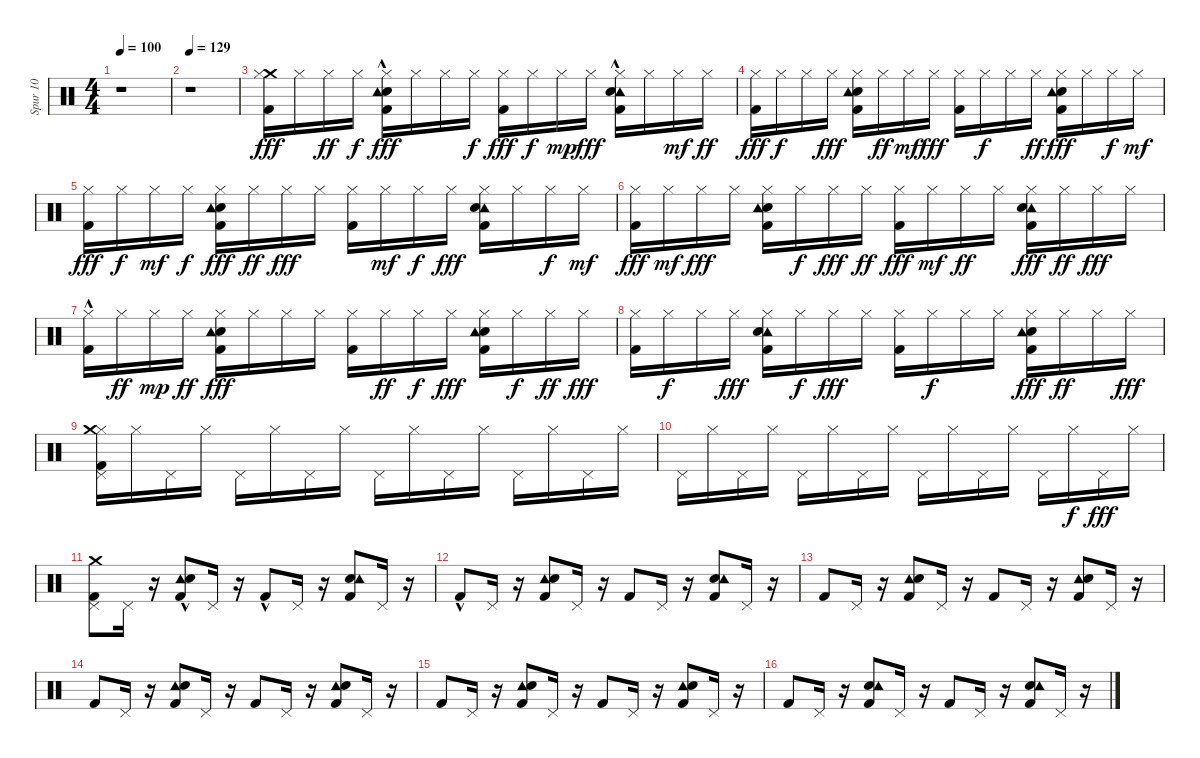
\track ("Spur 10" "Spur 10") {instrument percussion}
\staff {score}
\articulation defaults
\ts (4 4)
\tempo 100
\clef neutral
\ks c
r.1{dy fff} |
\tempo 129
r.1 |
("Crash medium (hit)" "Hi-Hat (closed)" "Kick (hit) 2").16 "Hi-Hat (closed)".16 "Hi-Hat (closed)".16{dy ff} "Hi-Hat (closed)".16{dy f} ("Kick (hit) 2"{hac} "Hi-Hat (closed)" "Electric Snare (hit)" "Tambourine (hit)").16{dy fff} "Hi-Hat (closed)".16 "Hi-Hat (closed)".16 "Hi-Hat (closed)".16{dy f} ("Kick (hit) 2" "Hi-Hat (closed)").16{dy fff} "Hi-Hat (closed)".16{dy f} "Hi-Hat (closed)".16{dy mp} "Hi-Hat (closed)".16{dy fff} ("Kick (hit) 2" "Hi-Hat (closed)" "Tambourine (hit)" "Electric Snare (hit)"{hac}).16 "Hi-Hat (closed)".16 "Hi-Hat (closed)".16{dy mf} "Hi-Hat (closed)".16{dy ff} |
("Hi-Hat (closed)" "Kick (hit) 2").16{dy fff} "Hi-Hat (closed)".16{dy f} "Hi-Hat (closed)".16 "Hi-Hat (closed)".16{dy fff} ("Electric Snare (hit)" "Hi-Hat (closed)" "Kick (hit) 2" "Tambourine (hit)").16 "Hi-Hat (closed)".16{dy ff} "Hi-Hat (closed)".16{dy mf} "Hi-Hat (closed)".16{dy fff} ("Kick (hit) 2" "Hi-Hat (closed)").16 "Hi-Hat (closed)".16{dy f} "Hi-Hat (closed)".16 "Hi-Hat (closed)".16{dy ff} ("Hi-Hat (closed)" "Kick (hit) 2" "Electric Snare (hit)" "Tambourine (hit)").16{dy fff} "Hi-Hat (closed)".16 "Hi-Hat (closed)".16{dy f} "Hi-Hat (closed)".16{dy mf} |
("Hi-Hat (closed)" "Kick (hit) 2").16{dy fff} "Hi-Hat (closed)".16{dy f} "Hi-Hat (closed)".16{dy mf} "Hi-Hat (closed)".16{dy f} ("Electric Snare (hit)" "Hi-Hat (closed)" "Tambourine (hit)" "Kick (hit) 2").16{dy fff} "Hi-Hat (closed)".16{dy ff} "Hi-Hat (closed)".16{dy fff} "Hi-Hat (closed)".16 ("Hi-Hat (closed)" "Kick (hit) 2").16 "Hi-Hat (closed)".16{dy mf} "Hi-Hat (closed)".16{dy f} "Hi-Hat (closed)".16{dy fff} ("Kick (hit) 2" "Hi-Hat (closed)" "Tambourine (hit)" "Electric Snare (hit)").16 "Hi-Hat (closed)".16 "Hi-Hat (closed)".16{dy f} "Hi-Hat (closed)".16{dy mf} |
("Kick (hit) 2" "Hi-Hat (closed)").16{dy fff} "Hi-Hat (closed)".16{dy mf} "Hi-Hat (closed)".16{dy fff} "Hi-Hat (closed)".16 ("Electric Snare (hit)" "Hi-Hat (closed)" "Tambourine (hit)" "Kick (hit) 2").16 "Hi-Hat (closed)".16{dy f} "Hi-Hat (closed)".16{dy fff} "Hi-Hat (closed)".16{dy ff} ("Hi-Hat (closed)" "Kick (hit) 2").16{dy fff} "Hi-Hat (closed)".16{dy mf} "Hi-Hat (closed)".16{dy ff} "Hi-Hat (closed)".16 ("Tambourine (hit)" "Electric Snare (hit)" "Kick (hit) 2" "Hi-Hat (closed)").16{dy fff} "Hi-Hat (closed)".16{dy ff} "Hi-Hat (closed)".16{dy fff} "Hi-Hat (closed)".16 |
("Kick (hit) 2"{hac} "Hi-Hat (closed)").16 "Hi-Hat (closed)".16{dy ff} "Hi-Hat (closed)".16{dy mp} "Hi-Hat (closed)".16{dy ff} ("Electric Snare (hit)" "Kick (hit) 2" "Tambourine (hit)" "Hi-Hat (closed)").16{dy fff} "Hi-Hat (closed)".16 "Hi-Hat (closed)".16 "Hi-Hat (closed)".16 ("Hi-Hat (closed)" "Kick (hit) 2").16 "Hi-Hat (closed)".16{dy ff} "Hi-Hat (closed)".16{dy f} "Hi-Hat (closed)".16{dy fff} ("Hi-Hat (closed)" "Electric Snare (hit)" "Kick (hit) 2" "Tambourine (hit)").16 "Hi-Hat (closed)".16{dy f} "Hi-Hat (closed)".16{dy ff} "Hi-Hat (closed)".16{dy fff} |
("Hi-Hat (closed)" "Kick (hit) 2").16 "Hi-Hat (closed)".16{dy f} "Hi-Hat (closed)".16 "Hi-Hat (closed)".16{dy fff} ("Kick (hit) 2" "Hi-Hat (closed)" "Tambourine (hit)" "Electric Snare (hit)").16 "Hi-Hat (closed)".16{dy f} "Hi-Hat (closed)".16{dy fff} "Hi-Hat (closed)".16 ("Hi-Hat (closed)" "Kick (hit) 2").16 "Hi-Hat (closed)".16{dy f} "Hi-Hat (closed)".16 "Hi-Hat (closed)".16 ("Kick (hit) 2" "Electric Snare (hit)" "Tambourine (hit)" "Hi-Hat (closed)").16{dy fff} "Hi-Hat (closed)".16{dy ff} "Hi-Hat (closed)".16 "Hi-Hat (closed)".16{dy fff} |
("Hi-Hat (closed)" "Pedal Hi-Hat (hit)" "Kick (hit) 2" "Crash medium (hit)").16 "Hi-Hat (closed)".16 "Pedal Hi-Hat (hit)".16 "Hi-Hat (closed)".16 "Pedal Hi-Hat (hit)".16 "Hi-Hat (closed)".16 "Pedal Hi-Hat (hit)".16 "Hi-Hat (closed)".16 "Pedal Hi-Hat (hit)".16 "Hi-Hat (closed)".16 "Pedal Hi-Hat (hit)".16 "Hi-Hat (closed)".16 "Pedal Hi-Hat (hit)".16 "Hi-Hat (closed)".16 "Pedal Hi-Hat (hit)".16 "Hi-Hat (closed)".16 |
"Pedal Hi-Hat (hit)".16 "Hi-Hat (closed)".16 "Pedal Hi-Hat (hit)".16 "Hi-Hat (closed)".16 "Pedal Hi-Hat (hit)".16 "Hi-Hat (closed)".16 "Pedal Hi-Hat (hit)".16 "Hi-Hat (closed)".16 "Pedal Hi-Hat (hit)".16 "Hi-Hat (closed)".16 "Pedal Hi-Hat (hit)".16 "Hi-Hat (closed)".16 "Pedal Hi-Hat (hit)".16 "Hi-Hat (closed)".16{dy f} "Pedal Hi-Hat (hit)".16{dy fff} "Hi-Hat (closed)".16 |
("Pedal Hi-Hat (hit)" "Crash medium (hit)" "Kick (hit) 2").8 "Pedal Hi-Hat (hit)".16 r.16 ("Tambourine (hit)" "Electric Snare (hit)" "Kick (hit) 2"{hac}).8 "Pedal Hi-Hat (hit)".16 r.16 "Kick (hit) 2"{hac}.8 "Pedal Hi-Hat (hit)".16 r.16 ("Kick (hit) 2" "Electric Snare (hit)" "Tambourine (hit)").8 "Pedal Hi-Hat (hit)".16 r.16 |
"Kick (hit) 2"{hac}.8 "Pedal Hi-Hat (hit)".16 r.16 ("Tambourine (hit)" "Electric Snare (hit)" "Kick (hit) 2").8 "Pedal Hi-Hat (hit)".16 r.16 "Kick (hit) 2".8 "Pedal Hi-Hat (hit)".16 r.16 ("Kick (hit) 2" "Electric Snare (hit)" "Tambourine (hit)").8 "Pedal Hi-Hat (hit)".16 r.16 |
"Kick (hit) 2".8 "Pedal Hi-Hat (hit)".16 r.16 ("Kick (hit) 2" "Tambourine (hit)" "Electric Snare (hit)").8 "Pedal Hi-Hat (hit)".16 r.16 "Kick (hit) 2".8 "Pedal Hi-Hat (hit)".16 r.16 ("Tambourine (hit)" "Electric Snare (hit)" "Kick (hit) 2").8 "Pedal Hi-Hat (hit)".16 r.16 |
"Kick (hit) 2".8 "Pedal Hi-Hat (hit)".16 r.16 ("Tambourine (hit)" "Electric Snare (hit)" "Kick (hit) 2").8 "Pedal Hi-Hat (hit)".16 r.16 "Kick (hit) 2".8 "Pedal Hi-Hat (hit)".16 r.16 ("Tambourine (hit)" "Kick (hit) 2" "Electric Snare (hit)").8 "Pedal Hi-Hat (hit)".16 r.16 |
"Kick (hit) 2".8 "Pedal Hi-Hat (hit)".16 r.16 ("Kick (hit) 2" "Tambourine (hit)" "Electric Snare (hit)").8 "Pedal Hi-Hat (hit)".16 r.16 "Kick (hit) 2".8 "Pedal Hi-Hat (hit)".16 r.16 ("Tambourine (hit)" "Electric Snare (hit)" "Kick (hit) 2").8 "Pedal Hi-Hat (hit)".16 r.16 |
"Kick (hit) 2".8 "Pedal Hi-Hat (hit)".16 r.16 ("Kick (hit) 2" "Electric Snare (hit)" "Tambourine (hit)").8 "Pedal Hi-Hat (hit)".16 r.16 "Kick (hit) 2".8 "Pedal Hi-Hat (hit)".16 r.16 ("Electric Snare (hit)" "Tambourine (hit)" "Kick (hit) 2").8 "Pedal Hi-Hat (hit)".16 r.16
